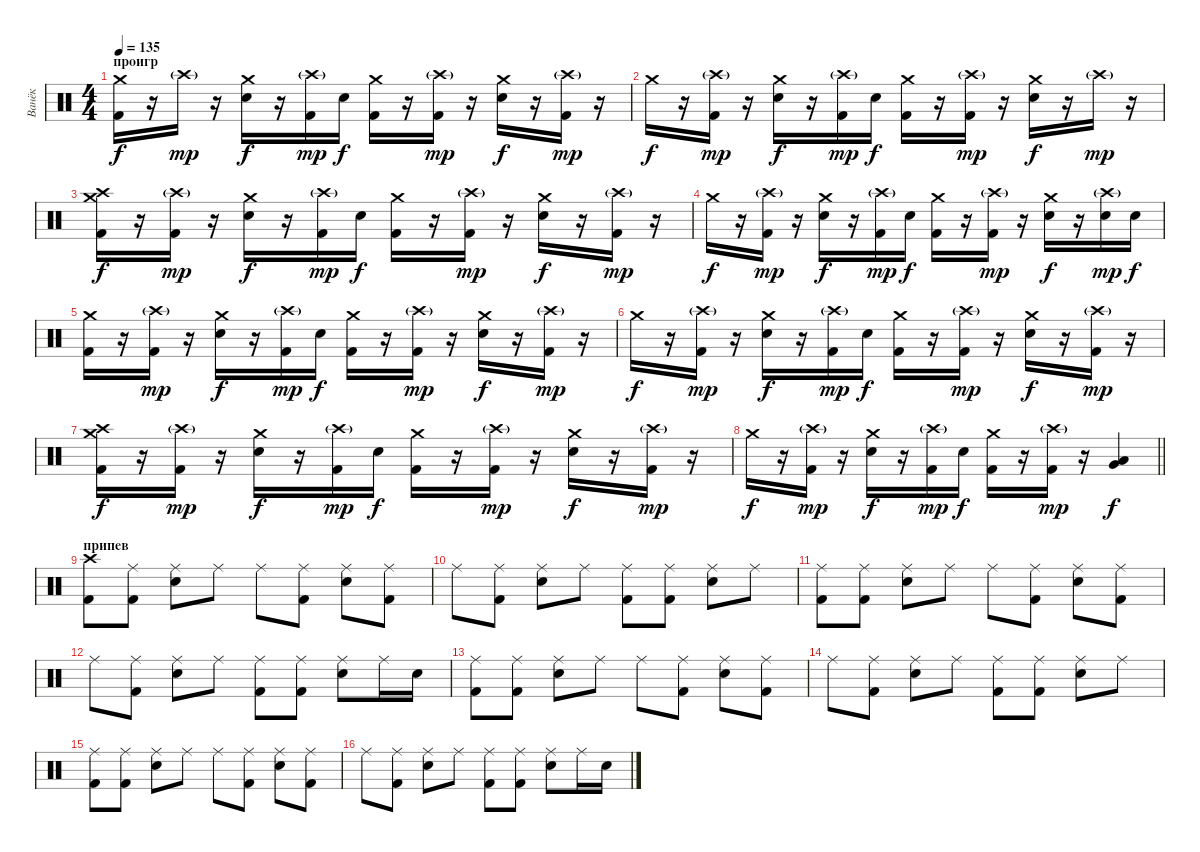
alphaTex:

\track ("Ванёк" "Ванёк") {instrument percussion}
\staff {score}
\articulation defaults
\ts (4 4)
\section ("" "проигр")
\tempo 135
\clef neutral
\ks c
("Crash medium (hit)" "Kick (hit) 2").16{dy f} r.16 "Crash high (hit)"{g}.16{dy mp} r.16 ("Crash medium (hit)" "Snare (hit) 2").16{dy f} r.16 ("Crash high (hit)"{g} "Kick (hit) 2").16{dy mp} "Snare (hit) 2".16{dy f} ("Crash medium (hit)" "Kick (hit) 2").16 r.16 ("Crash high (hit)"{g} "Kick (hit) 2").16{dy mp} r.16 ("Crash medium (hit)" "Snare (hit) 2").16{dy f} r.16 ("Crash high (hit)"{g} "Kick (hit) 2").16{dy mp} r.16 |
"Crash medium (hit)".16{dy f} r.16 ("Crash high (hit)"{g} "Kick (hit) 2").16{dy mp} r.16 ("Crash medium (hit)" "Snare (hit) 2").16{dy f} r.16 ("Crash high (hit)"{g} "Kick (hit) 2").16{dy mp} "Snare (hit) 2".16{dy f} ("Crash medium (hit)" "Kick (hit) 2").16 r.16 ("Crash high (hit)"{g} "Kick (hit) 2").16{dy mp} r.16 ("Crash medium (hit)" "Snare (hit) 2").16{dy f} r.16 "Crash high (hit)"{g}.16{dy mp} r.16 |
("Crash medium (hit)" "Crash high (hit)" "Kick (hit) 2").16{dy f} r.16 ("Crash high (hit)"{g} "Kick (hit) 2").16{dy mp} r.16 ("Crash medium (hit)" "Snare (hit) 2").16{dy f} r.16 ("Crash high (hit)"{g} "Kick (hit) 2").16{dy mp} "Snare (hit) 2".16{dy f} ("Crash medium (hit)" "Kick (hit) 2").16 r.16 ("Crash high (hit)"{g} "Kick (hit) 2").16{dy mp} r.16 ("Crash medium (hit)" "Snare (hit) 2").16{dy f} r.16 ("Crash high (hit)"{g} "Kick (hit) 2").16{dy mp} r.16 |
"Crash medium (hit)".16{dy f} r.16 ("Crash high (hit)"{g} "Kick (hit) 2").16{dy mp} r.16 ("Crash medium (hit)" "Snare (hit) 2").16{dy f} r.16 ("Crash high (hit)"{g} "Kick (hit) 2").16{dy mp} "Snare (hit) 2".16{dy f} ("Crash medium (hit)" "Kick (hit) 2").16 r.16 ("Crash high (hit)"{g} "Kick (hit) 2").16{dy mp} r.16 ("Crash medium (hit)" "Snare (hit) 2").16{dy f} r.16 ("Crash high (hit)"{g} "Snare (hit) 2").16{dy mp} "Snare (hit) 2".16{dy f} |
("Crash medium (hit)" "Kick (hit) 2").16 r.16 ("Crash high (hit)"{g} "Kick (hit) 2").16{dy mp} r.16 ("Crash medium (hit)" "Snare (hit) 2").16{dy f} r.16 ("Crash high (hit)"{g} "Kick (hit) 2").16{dy mp} "Snare (hit) 2".16{dy f} ("Crash medium (hit)" "Kick (hit) 2").16 r.16 ("Crash high (hit)"{g} "Kick (hit) 2").16{dy mp} r.16 ("Crash medium (hit)" "Snare (hit) 2").16{dy f} r.16 ("Crash high (hit)"{g} "Kick (hit) 2").16{dy mp} r.16 |
"Crash medium (hit)".16{dy f} r.16 ("Crash high (hit)"{g} "Kick (hit) 2").16{dy mp} r.16 ("Crash medium (hit)" "Snare (hit) 2").16{dy f} r.16 ("Crash high (hit)"{g} "Kick (hit) 2").16{dy mp} "Snare (hit) 2".16{dy f} ("Crash medium (hit)" "Kick (hit) 2").16 r.16 ("Crash high (hit)"{g} "Kick (hit) 2").16{dy mp} r.16 ("Crash medium (hit)" "Snare (hit) 2").16{dy f} r.16 ("Crash high (hit)"{g} "Kick (hit) 2").16{dy mp} r.16 |
("Crash medium (hit)" "Crash high (hit)" "Kick (hit) 2").16{dy f} r.16 ("Crash high (hit)"{g} "Kick (hit) 2").16{dy mp} r.16 ("Crash medium (hit)" "Snare (hit) 2").16{dy f} r.16 ("Crash high (hit)"{g} "Kick (hit) 2").16{dy mp} "Snare (hit) 2".16{dy f} ("Crash medium (hit)" "Kick (hit) 2").16 r.16 ("Crash high (hit)"{g} "Kick (hit) 2").16{dy mp} r.16 ("Crash medium (hit)" "Snare (hit) 2").16{dy f} r.16 ("Crash high (hit)"{g} "Kick (hit) 2").16{dy mp} r.16 |
\barLineRight lightlight "Crash medium (hit)".16{dy f}
r.16 ("Crash high (hit)"{g} "Kick (hit) 2").16{dy mp} r.16 ("Crash medium (hit)" "Snare (hit) 2").16{dy f} r.16 ("Crash high (hit)"{g} "Kick (hit) 2").16{dy mp} "Snare (hit) 2".16{dy f} ("Crash medium (hit)" "Kick (hit) 2").16 r.16 ("Crash high (hit)"{g} "Kick (hit) 2").16{dy mp} r.16 ("Very Low Tom (hit)" "Low Tom (hit)").4{dy f} |
\section ("" "припев")
("Crash high (hit)" "Kick (hit) 2").8 ("Ride (middle)" "Kick (hit) 2").8 ("Ride (middle)" "Snare (hit) 2").8 "Ride (middle)".8 "Ride (middle)".8 ("Ride (middle)" "Kick (hit) 2").8 ("Ride (middle)" "Snare (hit) 2").8 ("Ride (middle)" "Kick (hit) 2").8 |
"Ride (middle)".8 ("Ride (middle)" "Kick (hit) 2").8 ("Ride (middle)" "Snare (hit) 2").8 "Ride (middle)".8 ("Ride (middle)" "Kick (hit) 2").8 ("Ride (middle)" "Kick (hit) 2").8 ("Ride (middle)" "Snare (hit) 2").8 "Ride (middle)".8 |
("Ride (middle)" "Kick (hit) 2").8 ("Ride (middle)" "Kick (hit) 2").8 ("Ride (middle)" "Snare (hit) 2").8 "Ride (middle)".8 "Ride (middle)".8 ("Ride (middle)" "Kick (hit) 2").8 ("Ride (middle)" "Snare (hit) 2").8 ("Ride (middle)" "Kick (hit) 2").8 |
"Ride (middle)".8 ("Ride (middle)" "Kick (hit) 2").8 ("Ride (middle)" "Snare (hit) 2").8 "Ride (middle)".8 ("Ride (middle)" "Kick (hit) 2").8 ("Ride (middle)" "Kick (hit) 2").8 ("Ride (middle)" "Snare (hit) 2").8 "Ride (middle)".16 "Snare (hit) 2".16 |
("Ride (middle)" "Kick (hit) 2").8 ("Ride (middle)" "Kick (hit) 2").8 ("Ride (middle)" "Snare (hit) 2").8 "Ride (middle)".8 "Ride (middle)".8 ("Ride (middle)" "Kick (hit) 2").8 ("Ride (middle)" "Snare (hit) 2").8 ("Ride (middle)" "Kick (hit) 2").8 |
"Ride (middle)".8 ("Ride (middle)" "Kick (hit) 2").8 ("Ride (middle)" "Snare (hit) 2").8 "Ride (middle)".8 ("Ride (middle)" "Kick (hit) 2").8 ("Ride (middle)" "Kick (hit) 2").8 ("Ride (middle)" "Snare (hit) 2").8 "Ride (middle)".8 |
("Ride (middle)" "Kick (hit) 2").8 ("Ride (middle)" "Kick (hit) 2").8 ("Ride (middle)" "Snare (hit) 2").8 "Ride (middle)".8 "Ride (middle)".8 ("Ride (middle)" "Kick (hit) 2").8 ("Ride (middle)" "Snare (hit) 2").8 ("Ride (middle)" "Kick (hit) 2").8 |
"Ride (middle)".8 ("Ride (middle)" "Kick (hit) 2").8 ("Ride (middle)" "Snare (hit) 2").8 "Ride (middle)".8 ("Ride (middle)" "Kick (hit) 2").8 ("Ride (middle)" "Kick (hit) 2").8 ("Ride (middle)" "Snare (hit) 2").8 "Ride (middle)".16 "Snare (hit) 2".16
